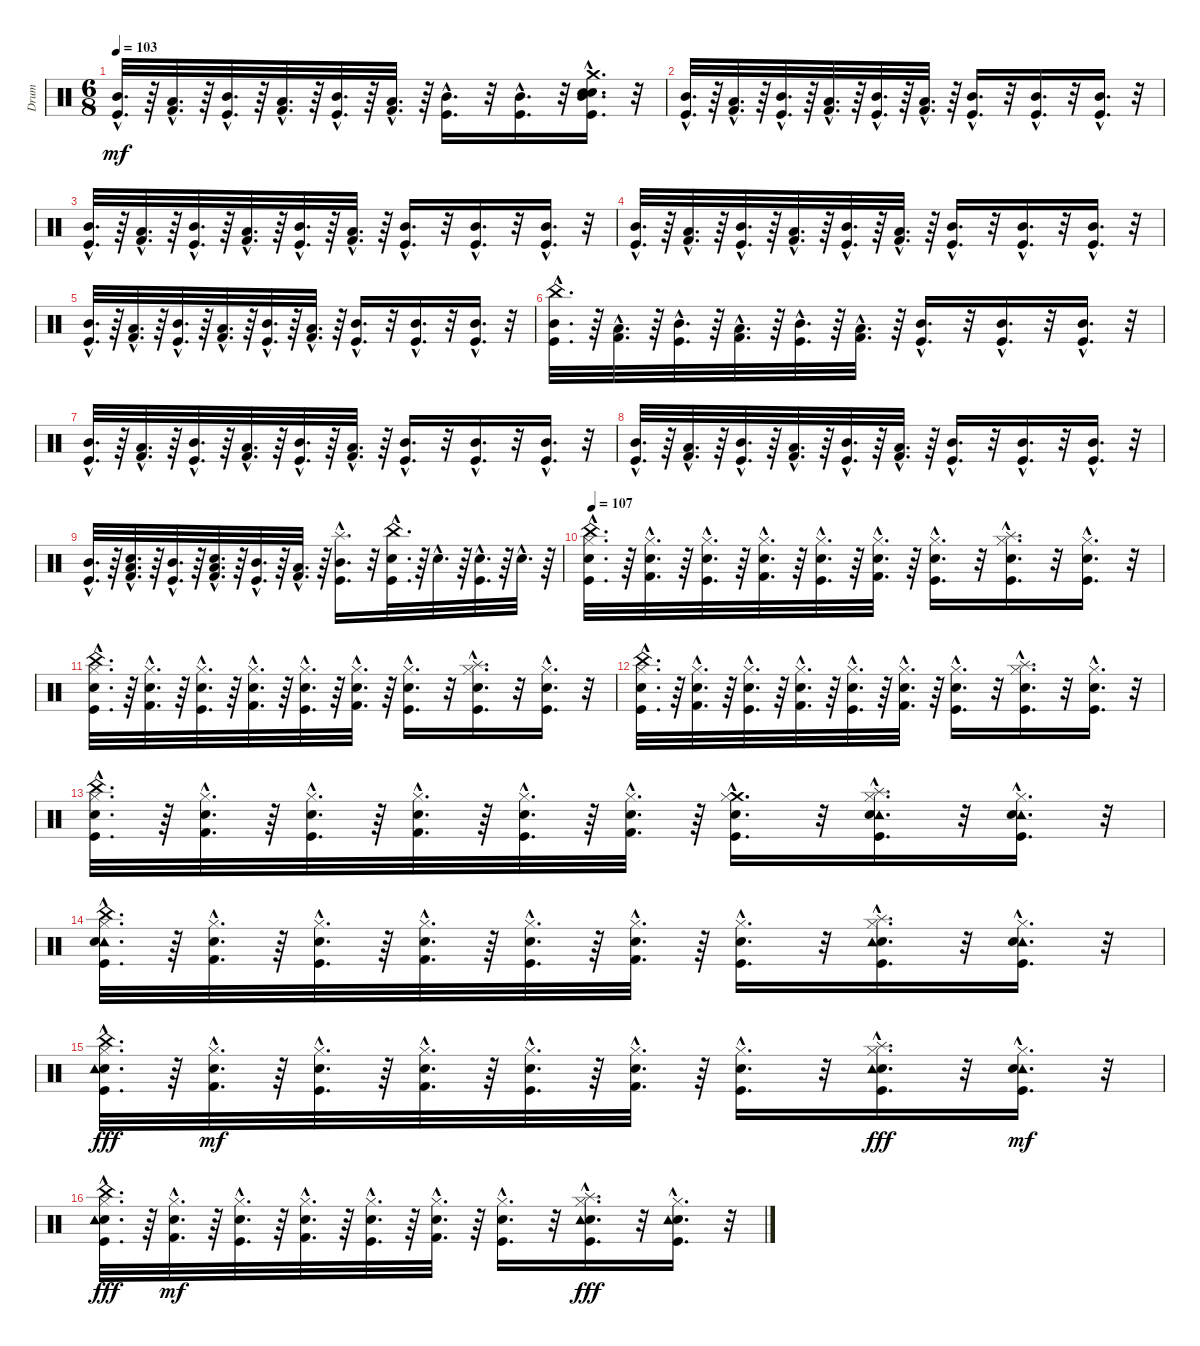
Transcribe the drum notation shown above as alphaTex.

\track ("Drum" "Drum") {instrument percussion}
\staff {score}
\articulation defaults
\ts (6 8)
\tempo 103
\clef neutral
\ks c
("Mid Tom (hit)"{hac} "Kick (hit)"{hac}).32{d dy mf} r.64 ("Low Tom (hit)"{hac} "Kick (hit) 2"{hac}).32{d} r.64 ("Mid Tom (hit)"{hac} "Kick (hit)"{hac}).32{d} r.64 ("Low Tom (hit)"{hac} "Kick (hit) 2"{hac}).32{d} r.64 ("Mid Tom (hit)"{hac} "Kick (hit)"{hac}).32{d} r.64 ("Low Tom (hit)"{hac} "Kick (hit) 2"{hac}).32{d} r.64 ("Mid Tom (hit)"{hac} "Kick (hit)"{hac}).16{d} r.32 ("Mid Tom (hit)"{hac} "Kick (hit)"{hac}).16{d} r.32 ("Electric Snare (hit)"{hac} "Snare (hit) 2"{hac} "Crash medium (hit)"{hac} "Mid Tom (hit)"{hac} "Kick (hit)"{hac}).16{d} r.32 |
("Mid Tom (hit)"{hac} "Kick (hit)"{hac}).32{d} r.64 ("Low Tom (hit)"{hac} "Kick (hit) 2"{hac}).32{d} r.64 ("Mid Tom (hit)"{hac} "Kick (hit)"{hac}).32{d} r.64 ("Low Tom (hit)"{hac} "Kick (hit) 2"{hac}).32{d} r.64 ("Mid Tom (hit)"{hac} "Kick (hit)"{hac}).32{d} r.64 ("Low Tom (hit)"{hac} "Kick (hit) 2"{hac}).32{d} r.64 ("Mid Tom (hit)"{hac} "Kick (hit)"{hac}).16{d} r.32 ("Mid Tom (hit)"{hac} "Kick (hit)"{hac}).16{d} r.32 ("Mid Tom (hit)"{hac} "Kick (hit)"{hac}).16{d} r.32 |
("Kick (hit)"{hac} "Mid Tom (hit)"{hac}).32{d} r.64 ("Kick (hit) 2"{hac} "Low Tom (hit)"{hac}).32{d} r.64 ("Kick (hit)"{hac} "Mid Tom (hit)"{hac}).32{d} r.64 ("Kick (hit) 2"{hac} "Low Tom (hit)"{hac}).32{d} r.64 ("Kick (hit)"{hac} "Mid Tom (hit)"{hac}).32{d} r.64 ("Kick (hit) 2"{hac} "Low Tom (hit)"{hac}).32{d} r.64 ("Kick (hit)"{hac} "Mid Tom (hit)"{hac}).16{d} r.32 ("Kick (hit)"{hac} "Mid Tom (hit)"{hac}).16{d} r.32 ("Kick (hit)"{hac} "Mid Tom (hit)"{hac}).16{d} r.32 |
("Mid Tom (hit)"{hac} "Kick (hit)"{hac}).32{d} r.64 ("Low Tom (hit)"{hac} "Kick (hit) 2"{hac}).32{d} r.64 ("Mid Tom (hit)"{hac} "Kick (hit)"{hac}).32{d} r.64 ("Low Tom (hit)"{hac} "Kick (hit) 2"{hac}).32{d} r.64 ("Mid Tom (hit)"{hac} "Kick (hit)"{hac}).32{d} r.64 ("Low Tom (hit)"{hac} "Kick (hit) 2"{hac}).32{d} r.64 ("Mid Tom (hit)"{hac} "Kick (hit)"{hac}).16{d} r.32 ("Mid Tom (hit)"{hac} "Kick (hit)"{hac}).16{d} r.32 ("Mid Tom (hit)"{hac} "Kick (hit)"{hac}).16{d} r.32 |
("Mid Tom (hit)"{hac} "Kick (hit)"{hac}).32{d} r.64 ("Low Tom (hit)"{hac} "Kick (hit) 2"{hac}).32{d} r.64 ("Mid Tom (hit)"{hac} "Kick (hit)"{hac}).32{d} r.64 ("Low Tom (hit)"{hac} "Kick (hit) 2"{hac}).32{d} r.64 ("Mid Tom (hit)"{hac} "Kick (hit)"{hac}).32{d} r.64 ("Low Tom (hit)"{hac} "Kick (hit) 2"{hac}).32{d} r.64 ("Mid Tom (hit)"{hac} "Kick (hit)"{hac}).16{d} r.32 ("Mid Tom (hit)"{hac} "Kick (hit)"{hac}).16{d} r.32 ("Mid Tom (hit)"{hac} "Kick (hit)"{hac}).16{d} r.32 |
("Mid Tom (hit)"{hac} "China (hit)"{hac} "Kick (hit)"{hac}).32{d} r.64 ("Low Tom (hit)"{hac} "Kick (hit) 2"{hac}).32{d} r.64 ("Mid Tom (hit)"{hac} "Kick (hit)"{hac}).32{d} r.64 ("Low Tom (hit)"{hac} "Kick (hit) 2"{hac}).32{d} r.64 ("Mid Tom (hit)"{hac} "Kick (hit)"{hac}).32{d} r.64 ("Low Tom (hit)"{hac} "Kick (hit) 2"{hac}).32{d} r.64 ("Mid Tom (hit)"{hac} "Kick (hit)"{hac}).16{d} r.32 ("Mid Tom (hit)"{hac} "Kick (hit)"{hac}).16{d} r.32 ("Mid Tom (hit)"{hac} "Kick (hit)"{hac}).16{d} r.32 |
("Kick (hit)"{hac} "Mid Tom (hit)"{hac}).32{d} r.64 ("Kick (hit) 2"{hac} "Low Tom (hit)"{hac}).32{d} r.64 ("Kick (hit)"{hac} "Mid Tom (hit)"{hac}).32{d} r.64 ("Kick (hit) 2"{hac} "Low Tom (hit)"{hac}).32{d} r.64 ("Kick (hit)"{hac} "Mid Tom (hit)"{hac}).32{d} r.64 ("Kick (hit) 2"{hac} "Low Tom (hit)"{hac}).32{d} r.64 ("Kick (hit)"{hac} "Mid Tom (hit)"{hac}).16{d} r.32 ("Kick (hit)"{hac} "Mid Tom (hit)"{hac}).16{d} r.32 ("Kick (hit)"{hac} "Mid Tom (hit)"{hac}).16{d} r.32 |
("Mid Tom (hit)"{hac} "Kick (hit)"{hac}).32{d} r.64 ("Low Tom (hit)"{hac} "Kick (hit) 2"{hac}).32{d} r.64 ("Mid Tom (hit)"{hac} "Kick (hit)"{hac}).32{d} r.64 ("Low Tom (hit)"{hac} "Kick (hit) 2"{hac}).32{d} r.64 ("Mid Tom (hit)"{hac} "Kick (hit)"{hac}).32{d} r.64 ("Low Tom (hit)"{hac} "Kick (hit) 2"{hac}).32{d} r.64 ("Mid Tom (hit)"{hac} "Kick (hit)"{hac}).16{d} r.32 ("Mid Tom (hit)"{hac} "Kick (hit)"{hac}).16{d} r.32 ("Mid Tom (hit)"{hac} "Kick (hit)"{hac}).16{d} r.32 |
("Mid Tom (hit)"{hac} "Kick (hit)"{hac}).32{d} r.64 ("Snare (hit) 2"{hac} "Low Tom (hit)"{hac} "Kick (hit) 2"{hac}).32{d} r.64 ("Mid Tom (hit)"{hac} "Kick (hit)"{hac}).32{d} r.64 ("Snare (hit) 2"{hac} "Low Tom (hit)"{hac} "Kick (hit) 2"{hac}).32{d} r.64 ("Mid Tom (hit)"{hac} "Kick (hit)"{hac}).32{d} r.64 ("Low Tom (hit)"{hac} "Kick (hit) 2"{hac}).32{d} r.64 ("Splash (hit)"{hac} "Mid Tom (hit)"{hac} "Kick (hit)"{hac}).16{d} r.32 ("China (hit)"{hac} "Kick (hit)"{hac} "Snare (hit) 2"{hac}).32{d} r.64 "Snare (hit) 2"{hac}.32{d} r.64 ("Kick (hit)"{hac} "Snare (hit) 2"{hac}).32{d} r.64 "Snare (hit) 2"{hac}.32{d} r.64 |
\tempo 107
("China (hit)"{hac} "Hi-Hat (closed)"{hac} "Snare (hit) 2"{hac} "Kick (hit)"{hac}).32{d} r.64 ("Hi-Hat (closed)"{hac} "Electric Snare (hit)"{hac} "Kick (hit) 2"{hac}).32{d} r.64 ("Hi-Hat (closed)"{hac} "Snare (hit) 2"{hac} "Kick (hit)"{hac}).32{d} r.64 ("Hi-Hat (closed)"{hac} "Electric Snare (hit)"{hac} "Kick (hit) 2"{hac}).32{d} r.64 ("Hi-Hat (closed)"{hac} "Snare (hit) 2"{hac} "Kick (hit)"{hac}).32{d} r.64 ("Hi-Hat (closed)"{hac} "Electric Snare (hit)"{hac} "Kick (hit) 2"{hac}).32{d} r.64 ("Hi-Hat (closed)"{hac} "Snare (hit) 2"{hac} "Kick (hit)"{hac}).16{d} r.32 ("Splash (hit)"{hac} "Hi-Hat (closed)"{hac} "Snare (hit) 2"{hac} "Kick (hit)"{hac}).16{d} r.32 ("Hi-Hat (closed)"{hac} "Snare (hit) 2"{hac} "Kick (hit)"{hac}).16{d} r.32 |
("China (hit)"{hac} "Hi-Hat (closed)"{hac} "Kick (hit)"{hac} "Snare (hit) 2"{hac}).32{d} r.64 ("Hi-Hat (closed)"{hac} "Kick (hit) 2"{hac} "Electric Snare (hit)"{hac}).32{d} r.64 ("Hi-Hat (closed)"{hac} "Kick (hit)"{hac} "Snare (hit) 2"{hac}).32{d} r.64 ("Hi-Hat (closed)"{hac} "Kick (hit) 2"{hac} "Electric Snare (hit)"{hac}).32{d} r.64 ("Hi-Hat (closed)"{hac} "Kick (hit)"{hac} "Snare (hit) 2"{hac}).32{d} r.64 ("Hi-Hat (closed)"{hac} "Kick (hit) 2"{hac} "Electric Snare (hit)"{hac}).32{d} r.64 ("Hi-Hat (closed)"{hac} "Kick (hit)"{hac} "Snare (hit) 2"{hac}).16{d} r.32 ("Hi-Hat (closed)"{hac} "Kick (hit)"{hac} "Splash (hit)"{hac} "Snare (hit) 2"{hac}).16{d} r.32 ("Hi-Hat (closed)"{hac} "Kick (hit)"{hac} "Snare (hit) 2"{hac}).16{d} r.32 |
("Snare (hit) 2"{hac} "Kick (hit)"{hac} "Hi-Hat (closed)"{hac} "China (hit)"{hac}).32{d} r.64 ("Electric Snare (hit)"{hac} "Kick (hit) 2"{hac} "Hi-Hat (closed)"{hac}).32{d} r.64 ("Snare (hit) 2"{hac} "Kick (hit)"{hac} "Hi-Hat (closed)"{hac}).32{d} r.64 ("Electric Snare (hit)"{hac} "Kick (hit) 2"{hac} "Hi-Hat (closed)"{hac}).32{d} r.64 ("Snare (hit) 2"{hac} "Kick (hit)"{hac} "Hi-Hat (closed)"{hac}).32{d} r.64 ("Electric Snare (hit)"{hac} "Kick (hit) 2"{hac} "Hi-Hat (closed)"{hac}).32{d} r.64 ("Snare (hit) 2"{hac} "Kick (hit)"{hac} "Hi-Hat (closed)"{hac}).16{d} r.32 ("Snare (hit) 2"{hac} "Splash (hit)"{hac} "Kick (hit)"{hac} "Hi-Hat (closed)"{hac}).16{d} r.32 ("Snare (hit) 2"{hac} "Kick (hit)"{hac} "Hi-Hat (closed)"{hac}).16{d} r.32 |
("Snare (hit) 2"{hac} "Kick (hit)"{hac} "Hi-Hat (closed)"{hac} "China (hit)"{hac}).32{d} r.64 ("Electric Snare (hit)"{hac} "Kick (hit) 2"{hac} "Hi-Hat (closed)"{hac}).32{d} r.64 ("Snare (hit) 2"{hac} "Kick (hit)"{hac} "Hi-Hat (closed)"{hac}).32{d} r.64 ("Electric Snare (hit)"{hac} "Kick (hit) 2"{hac} "Hi-Hat (closed)"{hac}).32{d} r.64 ("Snare (hit) 2"{hac} "Kick (hit)"{hac} "Hi-Hat (closed)"{hac}).32{d} r.64 ("Electric Snare (hit)"{hac} "Kick (hit) 2"{hac} "Hi-Hat (closed)"{hac}).32{d} r.64 ("Crash medium (hit)"{hac} "Snare (hit) 2"{hac} "Kick (hit)"{hac} "Hi-Hat (closed)"{hac}).16{d} r.32 ("Tambourine (hit)"{hac} "Snare (hit) 2"{hac} "Splash (hit)"{hac} "Kick (hit)"{hac} "Hi-Hat (closed)"{hac}).16{d} r.32 ("Tambourine (hit)"{hac} "Snare (hit) 2"{hac} "Kick (hit)"{hac} "Hi-Hat (closed)"{hac}).16{d} r.32 |
("Hi-Hat (closed)"{hac} "Kick (hit)"{hac} "Tambourine (hit)"{hac} "China (hit)"{hac} "Snare (hit) 2"{hac}).32{d} r.64 ("Kick (hit) 2"{hac} "Electric Snare (hit)"{hac} "Hi-Hat (closed)"{hac}).32{d} r.64 ("Hi-Hat (closed)"{hac} "Kick (hit)"{hac} "Snare (hit) 2"{hac}).32{d} r.64 ("Electric Snare (hit)"{hac} "Kick (hit) 2"{hac} "Hi-Hat (closed)"{hac}).32{d} r.64 ("Kick (hit)"{hac} "Hi-Hat (closed)"{hac} "Snare (hit) 2"{hac}).32{d} r.64 ("Electric Snare (hit)"{hac} "Hi-Hat (closed)"{hac} "Kick (hit) 2"{hac}).32{d} r.64 ("Kick (hit)"{hac} "Snare (hit) 2"{hac} "Hi-Hat (closed)"{hac}).16{d} r.32 ("Hi-Hat (closed)"{hac} "Snare (hit) 2"{hac} "Tambourine (hit)"{hac} "Splash (hit)"{hac} "Kick (hit)"{hac}).16{d} r.32 ("Kick (hit)"{hac} "Tambourine (hit)"{hac} "Snare (hit) 2"{hac} "Hi-Hat (closed)"{hac}).16{d} r.32 |
("Kick (hit)"{hac} "Snare (hit) 2"{hac} "Hi-Hat (closed)"{hac} "China (hit)"{hac} "Tambourine (hit)"{hac}).32{d dy fff} r.64 ("Electric Snare (hit)"{hac} "Kick (hit) 2"{hac} "Hi-Hat (closed)"{hac}).32{d dy mf} r.64 ("Snare (hit) 2"{hac} "Kick (hit)"{hac} "Hi-Hat (closed)"{hac}).32{d} r.64 ("Hi-Hat (closed)"{hac} "Electric Snare (hit)"{hac} "Kick (hit) 2"{hac}).32{d} r.64 ("Snare (hit) 2"{hac} "Hi-Hat (closed)"{hac} "Kick (hit)"{hac}).32{d} r.64 ("Kick (hit) 2"{hac} "Hi-Hat (closed)"{hac} "Electric Snare (hit)"{hac}).32{d} r.64 ("Snare (hit) 2"{hac} "Kick (hit)"{hac} "Hi-Hat (closed)"{hac}).16{d} r.32 ("Hi-Hat (closed)"{hac} "Splash (hit)"{hac} "Kick (hit)"{hac} "Snare (hit) 2"{hac} "Tambourine (hit)"{hac}).16{d dy fff} r.32 ("Tambourine (hit)"{hac} "Snare (hit) 2"{hac} "Kick (hit)"{hac} "Hi-Hat (closed)"{hac}).16{d dy mf} r.32 |
("China (hit)"{hac} "Hi-Hat (closed)"{hac} "Kick (hit)"{hac} "Snare (hit) 2"{hac} "Tambourine (hit)"{hac}).32{d dy fff} r.64 ("Hi-Hat (closed)"{hac} "Kick (hit) 2"{hac} "Electric Snare (hit)"{hac}).32{d dy mf} r.64 ("Hi-Hat (closed)"{hac} "Kick (hit)"{hac} "Snare (hit) 2"{hac}).32{d} r.64 ("Hi-Hat (closed)"{hac} "Kick (hit) 2"{hac} "Electric Snare (hit)"{hac}).32{d} r.64 ("Hi-Hat (closed)"{hac} "Kick (hit)"{hac} "Snare (hit) 2"{hac}).32{d} r.64 ("Hi-Hat (closed)"{hac} "Kick (hit) 2"{hac} "Electric Snare (hit)"{hac}).32{d} r.64 ("Hi-Hat (closed)"{hac} "Kick (hit)"{hac} "Snare (hit) 2"{hac}).16{d} r.32 ("Hi-Hat (closed)"{hac} "Kick (hit)"{hac} "Splash (hit)"{hac} "Snare (hit) 2"{hac} "Tambourine (hit)"{hac}).16{d dy fff} r.32 ("Hi-Hat (closed)"{hac} "Kick (hit)"{hac} "Snare (hit) 2"{hac} "Tambourine (hit)"{hac}).16{d} r.32
